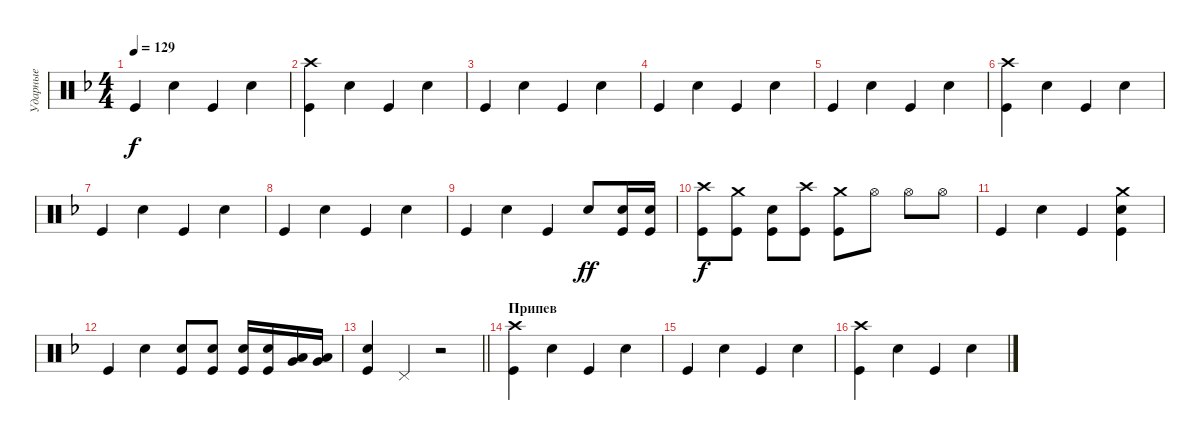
\track ("Ударные" "Ударные") {instrument percussion}
\staff {score}
\articulation defaults
\ts (4 4)
\tempo 129
\clef neutral
\ks dminor "Kick (hit)".4{dy f} "Snare (hit) 2".4 "Kick (hit)".4 "Snare (hit) 2".4
|
("Crash high (hit)" "Kick (hit)").4 "Snare (hit) 2".4 "Kick (hit)".4 "Snare (hit) 2".4 |
"Kick (hit)".4 "Snare (hit) 2".4 "Kick (hit)".4 "Snare (hit) 2".4 |
"Kick (hit)".4 "Snare (hit) 2".4 "Kick (hit)".4 "Snare (hit) 2".4 |
"Kick (hit)".4 "Snare (hit) 2".4 "Kick (hit)".4 "Snare (hit) 2".4 |
("Crash high (hit)" "Kick (hit)").4 "Snare (hit) 2".4 "Kick (hit)".4 "Snare (hit) 2".4 |
"Kick (hit)".4 "Snare (hit) 2".4 "Kick (hit)".4 "Snare (hit) 2".4 |
"Kick (hit)".4 "Snare (hit) 2".4 "Kick (hit)".4 "Snare (hit) 2".4 |
"Kick (hit)".4 "Snare (hit) 2".4 "Kick (hit)".4 "Snare (hit) 2".8{dy ff} ("Snare (hit) 2" "Kick (hit)").16 ("Snare (hit) 2" "Kick (hit)").16 |
("Kick (hit)" "Crash high (hit)").8{dy f} ("Crash medium (hit)" "Kick (hit)").8 ("Snare (hit) 2" "Kick (hit)").8 ("Crash high (hit)" "Kick (hit)").8 ("Crash medium (hit)" "Kick (hit)").8 "Hi-Hat (open)".8 "Hi-Hat (open)".8 "Hi-Hat (open)".8 |
"Kick (hit)".4 "Snare (hit) 2".4 "Kick (hit)".4 ("Crash medium (hit)" "Snare (hit) 2" "Kick (hit)").4 |
"Kick (hit)".4 "Snare (hit) 2".4 ("Snare (hit) 2" "Kick (hit)").8 ("Snare (hit) 2" "Kick (hit)").8 ("Snare (hit) 2" "Kick (hit)").16 ("Snare (hit) 2" "Kick (hit)").16 ("Low Floor Tom (hit)" "Very Low Tom (hit)").16 ("Very Low Tom (hit)" "Low Tom (hit)").16 |
\barLineRight lightlight
("Snare (hit) 2" "Kick (hit)").4 "Pedal Hi-Hat (hit)".4 r.2 |
\section ("" "Припев")
("Crash high (hit)" "Kick (hit)").4 "Snare (hit) 2".4 "Kick (hit)".4 "Snare (hit) 2".4 |
"Kick (hit)".4 "Snare (hit) 2".4 "Kick (hit)".4 "Snare (hit) 2".4 |
("Crash high (hit)" "Kick (hit)").4 "Snare (hit) 2".4 "Kick (hit)".4 "Snare (hit) 2".4
